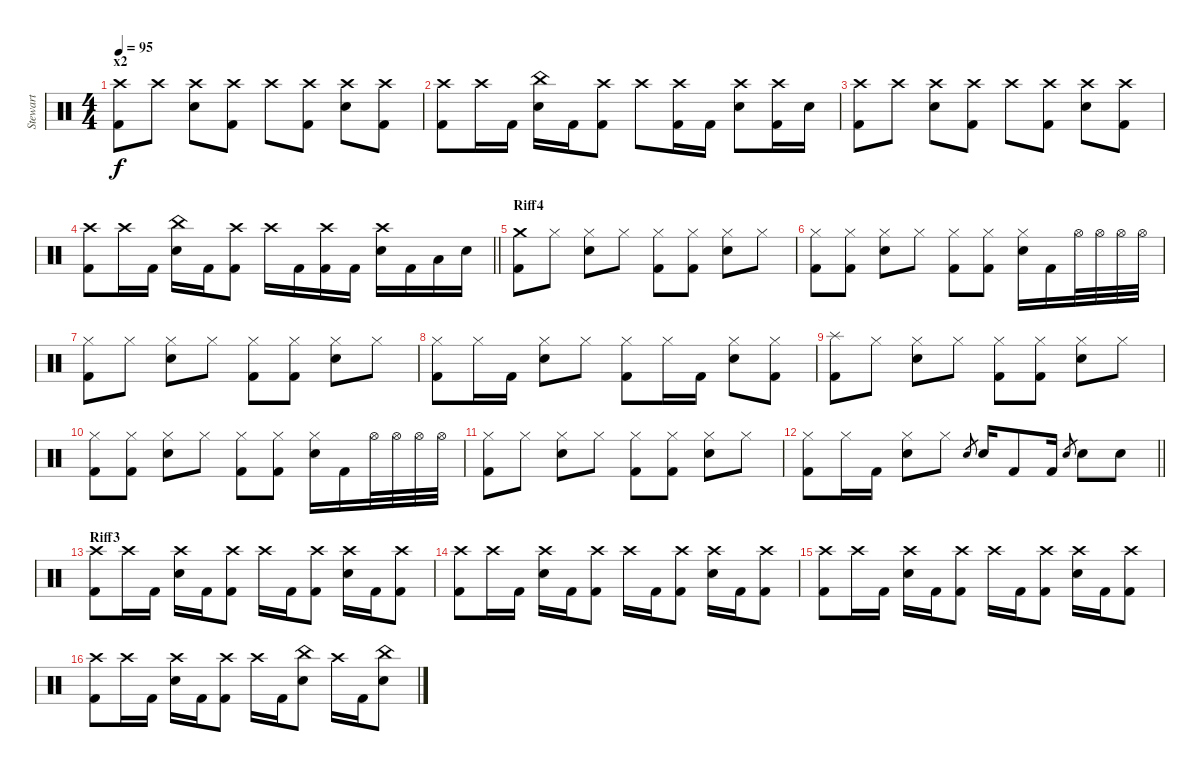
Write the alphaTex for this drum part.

\track ("Stewart" "Stewart") {instrument percussion}
\staff {score}
\articulation defaults
\ts (4 4)
\section ("" "x2")
\tempo 95
\clef neutral
\ks c
("Crash high (hit)" "Kick (hit) 2").8{dy f} "Crash high (hit)".8 ("Crash high (hit)" "Electric Snare (hit)").8 ("Crash high (hit)" "Kick (hit) 2").8 "Crash high (hit)".8 ("Crash high (hit)" "Kick (hit) 2").8 ("Crash high (hit)" "Electric Snare (hit)").8 ("Crash high (hit)" "Kick (hit) 2").8 |
("Crash high (hit)" "Kick (hit) 2").8 "Crash high (hit)".16 "Kick (hit) 2".16 ("China (hit)" "Electric Snare (hit)").16 "Kick (hit) 2".16 ("Crash high (hit)" "Kick (hit) 2").8 "Crash high (hit)".8 ("Crash high (hit)" "Kick (hit) 2").16 "Kick (hit) 2".16 ("Crash high (hit)" "Electric Snare (hit)").8 ("Crash high (hit)" "Kick (hit) 2").16 "Electric Snare (hit)".16 |
("Crash high (hit)" "Kick (hit) 2").8 "Crash high (hit)".8 ("Crash high (hit)" "Electric Snare (hit)").8 ("Crash high (hit)" "Kick (hit) 2").8 "Crash high (hit)".8 ("Crash high (hit)" "Kick (hit) 2").8 ("Crash high (hit)" "Electric Snare (hit)").8 ("Crash high (hit)" "Kick (hit) 2").8 |
\barLineRight lightlight
("Crash high (hit)" "Kick (hit) 2").8 "Crash high (hit)".16 "Kick (hit) 2".16 ("China (hit)" "Electric Snare (hit)").16 "Kick (hit) 2".16 ("Crash high (hit)" "Kick (hit) 2").8 "Crash high (hit)".16 "Kick (hit) 2".16 ("Crash high (hit)" "Kick (hit) 2").16 "Kick (hit) 2".16 ("Crash high (hit)" "Electric Snare (hit)").16 "Kick (hit) 2".16 "Low Tom (hit)".16 "Electric Snare (hit)".16 |
\section ("" "Riff4")
("Crash medium (hit)" "Kick (hit) 2").8 "Hi-Hat (closed)".8 ("Hi-Hat (closed)" "Electric Snare (hit)").8 "Hi-Hat (closed)".8 ("Hi-Hat (closed)" "Kick (hit) 2").8 ("Hi-Hat (closed)" "Kick (hit) 2").8 ("Hi-Hat (closed)" "Electric Snare (hit)").8 "Hi-Hat (closed)".8 |
("Hi-Hat (closed)" "Kick (hit) 2").8 ("Hi-Hat (closed)" "Kick (hit) 2").8 ("Hi-Hat (closed)" "Electric Snare (hit)").8 "Hi-Hat (closed)".8 ("Hi-Hat (closed)" "Kick (hit) 2").8 ("Hi-Hat (closed)" "Kick (hit) 2").8 ("Hi-Hat (closed)" "Electric Snare (hit)").16 "Kick (hit) 2".16 "Hi-Hat (open)".32 "Hi-Hat (open)".32 "Hi-Hat (open)".32 "Hi-Hat (open)".32 |
("Hi-Hat (closed)" "Kick (hit) 2").8 "Hi-Hat (closed)".8 ("Hi-Hat (closed)" "Electric Snare (hit)").8 "Hi-Hat (closed)".8 ("Hi-Hat (closed)" "Kick (hit) 2").8 ("Hi-Hat (closed)" "Kick (hit) 2").8 ("Hi-Hat (closed)" "Electric Snare (hit)").8 "Hi-Hat (closed)".8 |
("Hi-Hat (closed)" "Kick (hit) 2").8 "Hi-Hat (closed)".16 "Kick (hit) 2".16 ("Hi-Hat (closed)" "Electric Snare (hit)").8 "Hi-Hat (closed)".8 ("Hi-Hat (closed)" "Kick (hit) 2").8 "Hi-Hat (closed)".16 "Kick (hit) 2".16 ("Hi-Hat (closed)" "Electric Snare (hit)").8 ("Hi-Hat (closed)" "Kick (hit) 2").8 |
("Splash (hit)" "Kick (hit) 2").8 "Hi-Hat (closed)".8 ("Hi-Hat (closed)" "Electric Snare (hit)").8 "Hi-Hat (closed)".8 ("Hi-Hat (closed)" "Kick (hit) 2").8 ("Hi-Hat (closed)" "Kick (hit) 2").8 ("Hi-Hat (closed)" "Electric Snare (hit)").8 "Hi-Hat (closed)".8 |
("Hi-Hat (closed)" "Kick (hit) 2").8 ("Hi-Hat (closed)" "Kick (hit) 2").8 ("Hi-Hat (closed)" "Electric Snare (hit)").8 "Hi-Hat (closed)".8 ("Hi-Hat (closed)" "Kick (hit) 2").8 ("Hi-Hat (closed)" "Kick (hit) 2").8 ("Hi-Hat (closed)" "Electric Snare (hit)").16 "Kick (hit) 2".16 "Hi-Hat (open)".32 "Hi-Hat (open)".32 "Hi-Hat (open)".32 "Hi-Hat (open)".32 |
("Hi-Hat (closed)" "Kick (hit) 2").8 "Hi-Hat (closed)".8 ("Hi-Hat (closed)" "Electric Snare (hit)").8 "Hi-Hat (closed)".8 ("Hi-Hat (closed)" "Kick (hit) 2").8 ("Hi-Hat (closed)" "Kick (hit) 2").8 ("Hi-Hat (closed)" "Electric Snare (hit)").8 "Hi-Hat (closed)".8 |
\barLineRight lightlight
("Hi-Hat (closed)" "Kick (hit) 2").8 "Hi-Hat (closed)".16 "Kick (hit) 2".16 ("Hi-Hat (closed)" "Electric Snare (hit)").8 "Hi-Hat (closed)".8 "Electric Snare (hit)".8{gr} "Electric Snare (hit)".16 "Kick (hit) 2".8 "Kick (hit) 2".16 "Electric Snare (hit)".8{gr} "Electric Snare (hit)".8 "Electric Snare (hit)".8 |
\section ("" "Riff3")
("Crash high (hit)" "Kick (hit) 2").8 "Crash high (hit)".16 "Kick (hit) 2".16 ("Crash high (hit)" "Electric Snare (hit)").16 "Kick (hit) 2".16 ("Crash high (hit)" "Kick (hit) 2").8 "Crash high (hit)".16 "Kick (hit) 2".16 ("Crash high (hit)" "Kick (hit) 2").8 ("Crash high (hit)" "Electric Snare (hit)").16 "Kick (hit) 2".16 ("Crash high (hit)" "Kick (hit) 2").8 |
("Crash high (hit)" "Kick (hit) 2").8 "Crash high (hit)".16 "Kick (hit) 2".16 ("Crash high (hit)" "Electric Snare (hit)").16 "Kick (hit) 2".16 ("Crash high (hit)" "Kick (hit) 2").8 "Crash high (hit)".16 "Kick (hit) 2".16 ("Crash high (hit)" "Kick (hit) 2").8 ("Crash high (hit)" "Electric Snare (hit)").16 "Kick (hit) 2".16 ("Crash high (hit)" "Kick (hit) 2").8 |
("Crash high (hit)" "Kick (hit) 2").8 "Crash high (hit)".16 "Kick (hit) 2".16 ("Crash high (hit)" "Electric Snare (hit)").16 "Kick (hit) 2".16 ("Crash high (hit)" "Kick (hit) 2").8 "Crash high (hit)".16 "Kick (hit) 2".16 ("Crash high (hit)" "Kick (hit) 2").8 ("Crash high (hit)" "Electric Snare (hit)").16 "Kick (hit) 2".16 ("Crash high (hit)" "Kick (hit) 2").8 |
("Crash high (hit)" "Kick (hit) 2").8 "Crash high (hit)".16 "Kick (hit) 2".16 ("Crash high (hit)" "Electric Snare (hit)").16 "Kick (hit) 2".16 ("Crash high (hit)" "Kick (hit) 2").8 "Crash high (hit)".16 "Kick (hit) 2".16 ("China (hit)" "Electric Snare (hit)").8 "Crash high (hit)".16 "Kick (hit) 2".16 ("China (hit)" "Electric Snare (hit)").8
